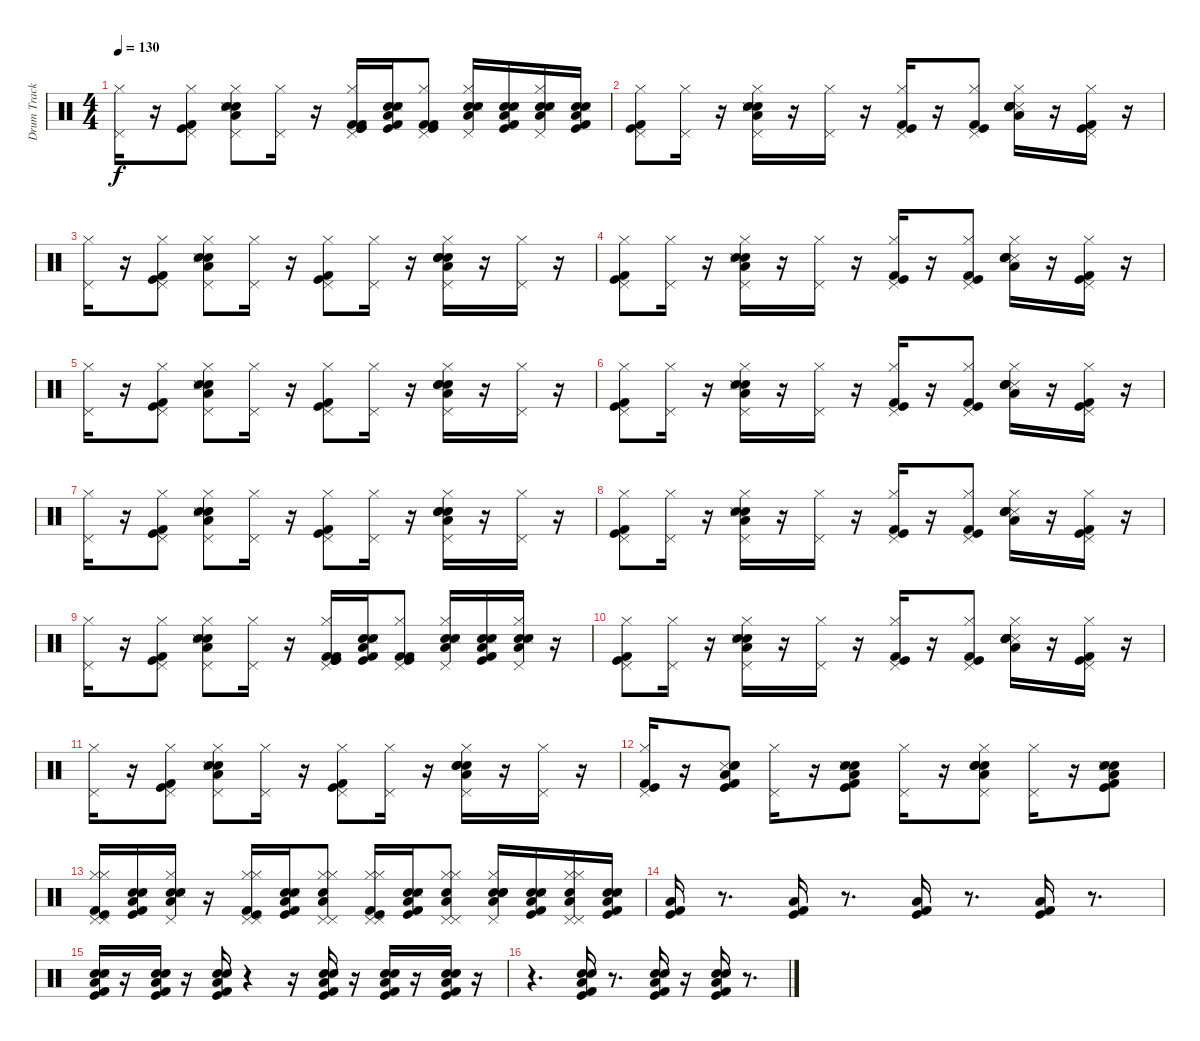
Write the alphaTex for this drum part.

\track ("Drum Track" "Drum Track") {instrument percussion}
\staff {score}
\articulation defaults
\ts (4 4)
\tempo 130
\clef neutral
\ks c
("Pedal Hi-Hat (hit)" "Hi-Hat (closed)").16{dy f} r.16 ("Kick (hit) 2" "Kick (hit)" "Hi-Hat (closed)" "Pedal Hi-Hat (hit)").8 ("Hi-Hat (closed)" "Pedal Hi-Hat (hit)" "Low Floor Tom (hit)" "Electric Snare (hit)" "Snare (hit) 2" "Snare (side stick) 3").8 ("Hi-Hat (closed)" "Pedal Hi-Hat (hit)").16 r.16 ("Hi-Hat (closed)" "Pedal Hi-Hat (hit)" "Kick (hit) 2" "Kick (hit)" "Kick (hit)" "Kick (hit) 2").16 ("Low Floor Tom (hit)" "Electric Snare (hit)" "Snare (hit) 2" "Snare (side stick) 3" "Kick (hit) 2" "Kick (hit)").16 ("Hi-Hat (closed)" "Pedal Hi-Hat (hit)" "Kick (hit) 2" "Kick (hit)" "Kick (hit) 2").8 ("Hi-Hat (closed)" "Pedal Hi-Hat (hit)" "Low Floor Tom (hit)" "Electric Snare (hit)" "Snare (hit) 2" "Snare (side stick) 3").16 ("Low Floor Tom (hit)" "Electric Snare (hit)" "Snare (hit) 2" "Snare (side stick) 3" "Kick (hit) 2" "Kick (hit)").16 ("Hi-Hat (closed)" "Pedal Hi-Hat (hit)" "Low Floor Tom (hit)" "Electric Snare (hit)" "Snare (hit) 2" "Snare (side stick) 3").16 ("Electric Snare (hit)" "Snare (hit) 2" "Kick (hit) 2" "Kick (hit)" "Low Floor Tom (hit)" "Snare (side stick) 3").16 |
("Kick (hit) 2" "Kick (hit)" "Hi-Hat (closed)" "Pedal Hi-Hat (hit)").8 ("Hi-Hat (closed)" "Pedal Hi-Hat (hit)").16 r.16 ("Electric Snare (hit)" "Snare (hit) 2" "Snare (side stick) 3" "Hi-Hat (closed)" "Pedal Hi-Hat (hit)" "Low Floor Tom (hit)").16 r.16 ("Hi-Hat (closed)" "Pedal Hi-Hat (hit)").16 r.16 ("Kick (hit) 2" "Kick (hit)" "Hi-Hat (closed)" "Pedal Hi-Hat (hit)").16 r.16 ("Kick (hit) 2" "Kick (hit)" "Hi-Hat (closed)" "Pedal Hi-Hat (hit)").8 ("Snare (side stick) 3" "Snare (hit) 2" "Electric Snare (hit)" "Electric Snare (hit)" "Low Floor Tom (hit)" "Hi-Hat (closed)").16 r.16 ("Kick (hit) 2" "Kick (hit)" "Hi-Hat (closed)" "Pedal Hi-Hat (hit)").16 r.16 |
("Pedal Hi-Hat (hit)" "Hi-Hat (closed)").16 r.16 ("Kick (hit) 2" "Kick (hit)" "Hi-Hat (closed)" "Pedal Hi-Hat (hit)").8 ("Hi-Hat (closed)" "Pedal Hi-Hat (hit)" "Low Floor Tom (hit)" "Electric Snare (hit)" "Snare (hit) 2" "Snare (side stick) 3").8 ("Hi-Hat (closed)" "Pedal Hi-Hat (hit)").16 r.16 ("Hi-Hat (closed)" "Pedal Hi-Hat (hit)" "Kick (hit) 2" "Kick (hit)").8 ("Hi-Hat (closed)" "Pedal Hi-Hat (hit)").16 r.16 ("Hi-Hat (closed)" "Pedal Hi-Hat (hit)" "Low Floor Tom (hit)" "Electric Snare (hit)" "Electric Snare (hit)" "Snare (hit) 2").16 r.16 ("Hi-Hat (closed)" "Pedal Hi-Hat (hit)").16 r.16 |
("Kick (hit) 2" "Kick (hit)" "Hi-Hat (closed)" "Pedal Hi-Hat (hit)").8 ("Hi-Hat (closed)" "Pedal Hi-Hat (hit)").16 r.16 ("Electric Snare (hit)" "Snare (hit) 2" "Snare (side stick) 3" "Hi-Hat (closed)" "Pedal Hi-Hat (hit)" "Low Floor Tom (hit)").16 r.16 ("Hi-Hat (closed)" "Pedal Hi-Hat (hit)").16 r.16 ("Kick (hit) 2" "Kick (hit)" "Hi-Hat (closed)" "Pedal Hi-Hat (hit)").16 r.16 ("Kick (hit) 2" "Kick (hit)" "Hi-Hat (closed)" "Pedal Hi-Hat (hit)").8 ("Snare (side stick) 3" "Snare (hit) 2" "Electric Snare (hit)" "Electric Snare (hit)" "Low Floor Tom (hit)" "Hi-Hat (closed)").16 r.16 ("Kick (hit) 2" "Kick (hit)" "Hi-Hat (closed)" "Pedal Hi-Hat (hit)").16 r.16 |
("Pedal Hi-Hat (hit)" "Hi-Hat (closed)").16 r.16 ("Kick (hit) 2" "Kick (hit)" "Hi-Hat (closed)" "Pedal Hi-Hat (hit)").8 ("Hi-Hat (closed)" "Pedal Hi-Hat (hit)" "Low Floor Tom (hit)" "Electric Snare (hit)" "Snare (hit) 2" "Snare (side stick) 3").8 ("Hi-Hat (closed)" "Pedal Hi-Hat (hit)").16 r.16 ("Hi-Hat (closed)" "Pedal Hi-Hat (hit)" "Kick (hit) 2" "Kick (hit)").8 ("Hi-Hat (closed)" "Pedal Hi-Hat (hit)").16 r.16 ("Hi-Hat (closed)" "Pedal Hi-Hat (hit)" "Low Floor Tom (hit)" "Electric Snare (hit)" "Electric Snare (hit)" "Snare (hit) 2").16 r.16 ("Hi-Hat (closed)" "Pedal Hi-Hat (hit)").16 r.16 |
("Kick (hit) 2" "Kick (hit)" "Hi-Hat (closed)" "Pedal Hi-Hat (hit)").8 ("Hi-Hat (closed)" "Pedal Hi-Hat (hit)").16 r.16 ("Electric Snare (hit)" "Snare (hit) 2" "Snare (side stick) 3" "Hi-Hat (closed)" "Pedal Hi-Hat (hit)" "Low Floor Tom (hit)").16 r.16 ("Hi-Hat (closed)" "Pedal Hi-Hat (hit)").16 r.16 ("Kick (hit) 2" "Kick (hit)" "Hi-Hat (closed)" "Pedal Hi-Hat (hit)").16 r.16 ("Kick (hit) 2" "Kick (hit)" "Hi-Hat (closed)" "Pedal Hi-Hat (hit)").8 ("Snare (side stick) 3" "Snare (hit) 2" "Electric Snare (hit)" "Electric Snare (hit)" "Low Floor Tom (hit)" "Hi-Hat (closed)").16 r.16 ("Kick (hit) 2" "Kick (hit)" "Hi-Hat (closed)" "Pedal Hi-Hat (hit)").16 r.16 |
("Pedal Hi-Hat (hit)" "Hi-Hat (closed)").16 r.16 ("Kick (hit) 2" "Kick (hit)" "Hi-Hat (closed)" "Pedal Hi-Hat (hit)").8 ("Hi-Hat (closed)" "Pedal Hi-Hat (hit)" "Low Floor Tom (hit)" "Electric Snare (hit)" "Snare (hit) 2" "Snare (side stick) 3").8 ("Hi-Hat (closed)" "Pedal Hi-Hat (hit)").16 r.16 ("Hi-Hat (closed)" "Pedal Hi-Hat (hit)" "Kick (hit) 2" "Kick (hit)").8 ("Hi-Hat (closed)" "Pedal Hi-Hat (hit)").16 r.16 ("Hi-Hat (closed)" "Pedal Hi-Hat (hit)" "Low Floor Tom (hit)" "Electric Snare (hit)" "Electric Snare (hit)" "Snare (hit) 2").16 r.16 ("Hi-Hat (closed)" "Pedal Hi-Hat (hit)").16 r.16 |
("Kick (hit) 2" "Kick (hit)" "Hi-Hat (closed)" "Pedal Hi-Hat (hit)").8 ("Hi-Hat (closed)" "Pedal Hi-Hat (hit)").16 r.16 ("Electric Snare (hit)" "Snare (hit) 2" "Snare (side stick) 3" "Hi-Hat (closed)" "Pedal Hi-Hat (hit)" "Low Floor Tom (hit)").16 r.16 ("Hi-Hat (closed)" "Pedal Hi-Hat (hit)").16 r.16 ("Kick (hit) 2" "Kick (hit)" "Hi-Hat (closed)" "Pedal Hi-Hat (hit)").16 r.16 ("Kick (hit) 2" "Kick (hit)" "Hi-Hat (closed)" "Pedal Hi-Hat (hit)").8 ("Snare (side stick) 3" "Snare (hit) 2" "Electric Snare (hit)" "Electric Snare (hit)" "Low Floor Tom (hit)" "Hi-Hat (closed)").16 r.16 ("Kick (hit) 2" "Kick (hit)" "Hi-Hat (closed)" "Pedal Hi-Hat (hit)").16 r.16 |
("Pedal Hi-Hat (hit)" "Hi-Hat (closed)").16 r.16 ("Kick (hit) 2" "Kick (hit)" "Hi-Hat (closed)" "Pedal Hi-Hat (hit)").8 ("Hi-Hat (closed)" "Pedal Hi-Hat (hit)" "Low Floor Tom (hit)" "Electric Snare (hit)" "Snare (hit) 2" "Snare (side stick) 3").8 ("Hi-Hat (closed)" "Pedal Hi-Hat (hit)").16 r.16 ("Hi-Hat (closed)" "Pedal Hi-Hat (hit)" "Kick (hit) 2" "Kick (hit)" "Kick (hit)" "Kick (hit) 2").16 ("Low Floor Tom (hit)" "Electric Snare (hit)" "Snare (hit) 2" "Snare (side stick) 3" "Kick (hit) 2" "Kick (hit)").16 ("Hi-Hat (closed)" "Pedal Hi-Hat (hit)" "Kick (hit) 2" "Kick (hit)" "Kick (hit) 2").8 ("Hi-Hat (closed)" "Pedal Hi-Hat (hit)" "Low Floor Tom (hit)" "Electric Snare (hit)" "Snare (hit) 2" "Snare (side stick) 3").16 ("Low Floor Tom (hit)" "Electric Snare (hit)" "Snare (hit) 2" "Snare (side stick) 3" "Kick (hit) 2" "Kick (hit)").16 ("Hi-Hat (closed)" "Pedal Hi-Hat (hit)" "Low Floor Tom (hit)" "Electric Snare (hit)" "Snare (hit) 2" "Snare (side stick) 3").16 r.16 |
("Kick (hit) 2" "Kick (hit)" "Hi-Hat (closed)" "Pedal Hi-Hat (hit)").8 ("Hi-Hat (closed)" "Pedal Hi-Hat (hit)").16 r.16 ("Electric Snare (hit)" "Snare (hit) 2" "Snare (side stick) 3" "Hi-Hat (closed)" "Pedal Hi-Hat (hit)" "Low Floor Tom (hit)").16 r.16 ("Hi-Hat (closed)" "Pedal Hi-Hat (hit)").16 r.16 ("Kick (hit) 2" "Kick (hit)" "Hi-Hat (closed)" "Pedal Hi-Hat (hit)").16 r.16 ("Kick (hit) 2" "Kick (hit)" "Hi-Hat (closed)" "Pedal Hi-Hat (hit)").8 ("Snare (side stick) 3" "Snare (hit) 2" "Electric Snare (hit)" "Electric Snare (hit)" "Low Floor Tom (hit)" "Hi-Hat (closed)").16 r.16 ("Kick (hit) 2" "Kick (hit)" "Hi-Hat (closed)" "Pedal Hi-Hat (hit)").16 r.16 |
("Pedal Hi-Hat (hit)" "Hi-Hat (closed)").16 r.16 ("Kick (hit) 2" "Kick (hit)" "Hi-Hat (closed)" "Pedal Hi-Hat (hit)").8 ("Hi-Hat (closed)" "Pedal Hi-Hat (hit)" "Low Floor Tom (hit)" "Electric Snare (hit)" "Snare (hit) 2" "Snare (side stick) 3").8 ("Hi-Hat (closed)" "Pedal Hi-Hat (hit)").16 r.16 ("Hi-Hat (closed)" "Pedal Hi-Hat (hit)" "Kick (hit) 2" "Kick (hit)").8 ("Hi-Hat (closed)" "Pedal Hi-Hat (hit)").16 r.16 ("Hi-Hat (closed)" "Pedal Hi-Hat (hit)" "Low Floor Tom (hit)" "Electric Snare (hit)" "Electric Snare (hit)" "Snare (hit) 2").16 r.16 ("Hi-Hat (closed)" "Pedal Hi-Hat (hit)").16 r.16 |
("Kick (hit) 2" "Kick (hit)" "Hi-Hat (closed)" "Pedal Hi-Hat (hit)").16 r.16 ("Low Floor Tom (hit)" "Snare (side stick) 3" "Snare (hit) 2" "Electric Snare (hit)" "Kick (hit)" "Kick (hit) 2").8 ("Hi-Hat (closed)" "Pedal Hi-Hat (hit)").16 r.16 ("Kick (hit) 2" "Kick (hit)" "Electric Snare (hit)" "Snare (hit) 2" "Snare (side stick) 3" "Low Floor Tom (hit)").8 ("Hi-Hat (closed)" "Pedal Hi-Hat (hit)").16 r.16 ("Pedal Hi-Hat (hit)" "Hi-Hat (closed)" "Low Floor Tom (hit)" "Electric Snare (hit)" "Electric Snare (hit)" "Snare (hit) 2").8 ("Pedal Hi-Hat (hit)" "Hi-Hat (closed)").16 r.16 ("Kick (hit) 2" "Kick (hit)" "Electric Snare (hit)" "Snare (hit) 2" "Snare (side stick) 3" "Low Floor Tom (hit)").8 |
("Pedal Hi-Hat (hit)" "Hi-Hat (closed)" "Kick (hit) 2" "Kick (hit)" "Hi-Hat (closed)" "Pedal Hi-Hat (hit)").16 ("Low Floor Tom (hit)" "Electric Snare (hit)" "Snare (hit) 2" "Snare (side stick) 3" "Kick (hit)" "Kick (hit) 2").16 ("Hi-Hat (closed)" "Pedal Hi-Hat (hit)" "Low Floor Tom (hit)" "Electric Snare (hit)" "Snare (hit) 2" "Snare (side stick) 3").16 r.16 ("Hi-Hat (closed)" "Pedal Hi-Hat (hit)" "Kick (hit) 2" "Kick (hit)" "Hi-Hat (closed)" "Pedal Hi-Hat (hit)").16 ("Low Floor Tom (hit)" "Electric Snare (hit)" "Snare (hit) 2" "Snare (side stick) 3" "Kick (hit)" "Kick (hit) 2").16 ("Hi-Hat (closed)" "Pedal Hi-Hat (hit)" "Hi-Hat (closed)" "Pedal Hi-Hat (hit)" "Low Floor Tom (hit)" "Electric Snare (hit)").8 ("Hi-Hat (closed)" "Pedal Hi-Hat (hit)" "Kick (hit) 2" "Kick (hit)" "Hi-Hat (closed)" "Pedal Hi-Hat (hit)").16 ("Low Floor Tom (hit)" "Electric Snare (hit)" "Snare (hit) 2" "Snare (side stick) 3" "Kick (hit)" "Kick (hit) 2").16 ("Hi-Hat (closed)" "Pedal Hi-Hat (hit)" "Hi-Hat (closed)" "Pedal Hi-Hat (hit)" "Low Floor Tom (hit)" "Electric Snare (hit)").8 ("Hi-Hat (closed)" "Pedal Hi-Hat (hit)" "Low Floor Tom (hit)" "Electric Snare (hit)" "Electric Snare (hit)" "Snare (hit) 2").16 ("Low Floor Tom (hit)" "Electric Snare (hit)" "Snare (hit) 2" "Snare (side stick) 3" "Kick (hit)" "Kick (hit) 2").16 ("Hi-Hat (closed)" "Pedal Hi-Hat (hit)" "Hi-Hat (closed)" "Pedal Hi-Hat (hit)" "Low Floor Tom (hit)" "Electric Snare (hit)").16 ("Low Floor Tom (hit)" "Electric Snare (hit)" "Snare (hit) 2" "Snare (side stick) 3" "Kick (hit) 2" "Kick (hit)").16 |
("Kick (hit) 2" "Kick (hit)" "Low Floor Tom (hit)").16 r.8{d} ("Kick (hit) 2" "Kick (hit)" "Low Floor Tom (hit)").16 r.8{d} ("Kick (hit) 2" "Kick (hit)" "Low Floor Tom (hit)").16 r.8{d} ("Kick (hit) 2" "Kick (hit)" "Low Floor Tom (hit)").16 r.8{d} |
("Snare (hit) 2" "Electric Snare (hit)" "Kick (hit) 2" "Kick (hit)" "Snare (side stick) 3" "Low Floor Tom (hit)").16 r.16 ("Electric Snare (hit)" "Snare (hit) 2" "Kick (hit) 2" "Kick (hit)" "Low Floor Tom (hit)").16 r.16 ("Electric Snare (hit)" "Snare (hit) 2" "Kick (hit) 2" "Kick (hit)" "Low Floor Tom (hit)").16 r.4 r.16 ("Snare (hit) 2" "Kick (hit) 2" "Kick (hit)" "Low Floor Tom (hit)" "Electric Snare (hit)").16 r.16 ("Snare (hit) 2" "Kick (hit) 2" "Kick (hit)" "Low Floor Tom (hit)" "Electric Snare (hit)").16 r.16 ("Electric Snare (hit)" "Snare (hit) 2" "Kick (hit) 2" "Kick (hit)" "Low Floor Tom (hit)").16 r.16 |
r.4{d} ("Kick (hit) 2" "Kick (hit)" "Snare (hit) 2" "Electric Snare (hit)" "Low Floor Tom (hit)").16 r.8{d} ("Kick (hit) 2" "Kick (hit)" "Electric Snare (hit)" "Snare (hit) 2" "Low Floor Tom (hit)").16 r.16 ("Electric Snare (hit)" "Snare (hit) 2" "Kick (hit) 2" "Kick (hit)" "Low Floor Tom (hit)").16 r.8{d}
